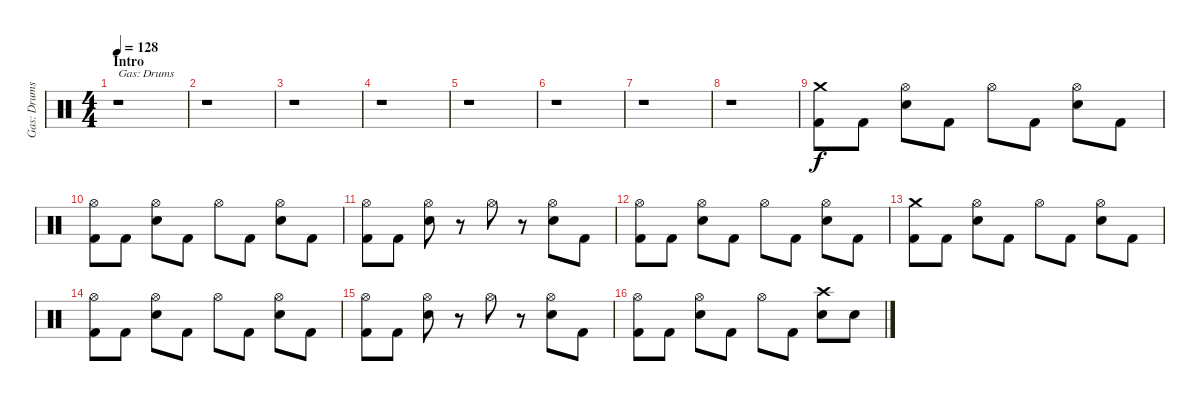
\track ("Gas: Drums" "Gas: Drums") {instrument percussion}
\staff {score}
\articulation defaults
\ts (4 4)
\section ("" "Intro")
\tempo 128
\clef neutral
\ks c
r.1{txt "Gas: Drums" dy f} |
r.1 |
r.1 |
r.1 |
r.1 |
r.1 |
r.1 |
r.1 |
("Crash medium (hit)" "Kick (hit) 2").8 "Kick (hit) 2".8 ("Hi-Hat (open)" "Electric Snare (hit)").8 "Kick (hit) 2".8 "Hi-Hat (open)".8 "Kick (hit) 2".8 ("Hi-Hat (open)" "Electric Snare (hit)").8 "Kick (hit) 2".8 |
("Hi-Hat (open)" "Kick (hit) 2").8 "Kick (hit) 2".8 ("Hi-Hat (open)" "Electric Snare (hit)").8 "Kick (hit) 2".8 "Hi-Hat (open)".8 "Kick (hit) 2".8 ("Hi-Hat (open)" "Electric Snare (hit)").8 "Kick (hit) 2".8 |
("Hi-Hat (open)" "Kick (hit) 2").8 "Kick (hit) 2".8 ("Hi-Hat (open)" "Electric Snare (hit)").8 r.8 "Hi-Hat (open)".8 r.8 ("Hi-Hat (open)" "Electric Snare (hit)").8 "Kick (hit) 2".8 |
("Hi-Hat (open)" "Kick (hit) 2").8 "Kick (hit) 2".8 ("Hi-Hat (open)" "Electric Snare (hit)").8 "Kick (hit) 2".8 "Hi-Hat (open)".8 "Kick (hit) 2".8 ("Hi-Hat (open)" "Electric Snare (hit)").8 "Kick (hit) 2".8 |
("Crash medium (hit)" "Kick (hit) 2").8 "Kick (hit) 2".8 ("Hi-Hat (open)" "Electric Snare (hit)").8 "Kick (hit) 2".8 "Hi-Hat (open)".8 "Kick (hit) 2".8 ("Hi-Hat (open)" "Electric Snare (hit)").8 "Kick (hit) 2".8 |
("Hi-Hat (open)" "Kick (hit) 2").8 "Kick (hit) 2".8 ("Hi-Hat (open)" "Electric Snare (hit)").8 "Kick (hit) 2".8 "Hi-Hat (open)".8 "Kick (hit) 2".8 ("Hi-Hat (open)" "Electric Snare (hit)").8 "Kick (hit) 2".8 |
("Hi-Hat (open)" "Kick (hit) 2").8 "Kick (hit) 2".8 ("Hi-Hat (open)" "Electric Snare (hit)").8 r.8 "Hi-Hat (open)".8 r.8 ("Hi-Hat (open)" "Electric Snare (hit)").8 "Kick (hit) 2".8 |
("Hi-Hat (open)" "Kick (hit) 2").8 "Kick (hit) 2".8 ("Hi-Hat (open)" "Electric Snare (hit)").8 "Kick (hit) 2".8 "Hi-Hat (open)".8 "Kick (hit) 2".8 ("Crash high (hit)" "Electric Snare (hit)").8 "Electric Snare (hit)".8
